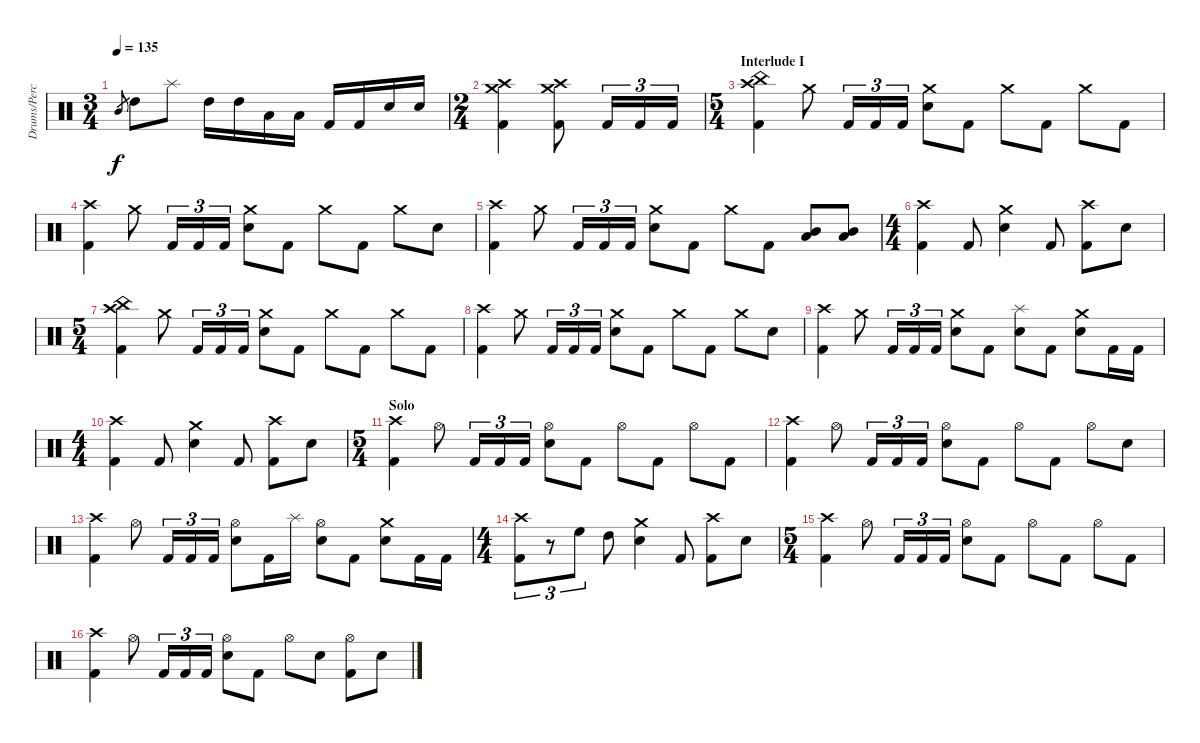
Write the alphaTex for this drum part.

\track ("Drums/Percussion" "Drums/Perc") {instrument percussion}
\staff {score}
\articulation defaults
\ts (3 4)
\tempo 135
\clef neutral
\ks c "Mid Tom (hit)".8{gr dy f} "High Tom (hit)".8 "Splash (hit)".8 "High Tom (hit)".16 "High Tom (hit)".16 "Low Tom (hit)".16 "Low Tom (hit)".16 "Kick (hit) 2".16 "Kick (hit) 2".16 "Snare (hit) 2".16 "Snare (hit) 2".16
|
\ts (2 4)
("Crash medium (hit)" "Crash high (hit)" "Kick (hit) 2").4 ("Crash medium (hit)" "Crash high (hit)" "Kick (hit) 2").8 "Kick (hit) 2".16{tu (3 2)} "Kick (hit) 2".16{tu (3 2)} "Kick (hit) 2".16{tu (3 2)} |
\ts (5 4)
\section ("" "Interlude I")
("Crash high (hit)" "China (hit)" "Kick (hit) 2").4 "Crash medium (hit)".8 "Kick (hit) 2".16{tu (3 2)} "Kick (hit) 2".16{tu (3 2)} "Kick (hit) 2".16{tu (3 2)} ("Crash medium (hit)" "Snare (hit) 2").8 "Kick (hit) 2".8 "Crash medium (hit)".8 "Kick (hit) 2".8 "Crash medium (hit)".8 "Kick (hit) 2".8 |
("Crash high (hit)" "Kick (hit) 2").4 "Crash medium (hit)".8 "Kick (hit) 2".16{tu (3 2)} "Kick (hit) 2".16{tu (3 2)} "Kick (hit) 2".16{tu (3 2)} ("Crash medium (hit)" "Snare (hit) 2").8 "Kick (hit) 2".8 "Crash medium (hit)".8 "Kick (hit) 2".8 "Crash medium (hit)".8 "Snare (hit) 2".8 |
("Crash high (hit)" "Kick (hit) 2").4 "Crash medium (hit)".8 "Kick (hit) 2".16{tu (3 2)} "Kick (hit) 2".16{tu (3 2)} "Kick (hit) 2".16{tu (3 2)} ("Crash medium (hit)" "Snare (hit) 2").8 "Kick (hit) 2".8 "Crash medium (hit)".8 "Kick (hit) 2".8 ("Mid Tom (hit)" "Low Floor Tom (hit)").8 ("Mid Tom (hit)" "Low Floor Tom (hit)").8 |
\ts (4 4)
("Crash high (hit)" "Kick (hit) 2").4 "Kick (hit) 2".8 ("Crash medium (hit)" "Snare (hit) 2").4 "Kick (hit) 2".8 ("Crash high (hit)" "Kick (hit) 2").8 "Snare (hit) 2".8 |
\ts (5 4)
("Crash high (hit)" "China (hit)" "Kick (hit) 2").4 "Crash medium (hit)".8 "Kick (hit) 2".16{tu (3 2)} "Kick (hit) 2".16{tu (3 2)} "Kick (hit) 2".16{tu (3 2)} ("Crash medium (hit)" "Snare (hit) 2").8 "Kick (hit) 2".8 "Crash medium (hit)".8 "Kick (hit) 2".8 "Crash medium (hit)".8 "Kick (hit) 2".8 |
("Crash high (hit)" "Kick (hit) 2").4 "Crash medium (hit)".8 "Kick (hit) 2".16{tu (3 2)} "Kick (hit) 2".16{tu (3 2)} "Kick (hit) 2".16{tu (3 2)} ("Crash medium (hit)" "Snare (hit) 2").8 "Kick (hit) 2".8 "Crash medium (hit)".8 "Kick (hit) 2".8 "Crash medium (hit)".8 "Snare (hit) 2".8 |
("Crash high (hit)" "Kick (hit) 2").4 "Crash medium (hit)".8 "Kick (hit) 2".16{tu (3 2)} "Kick (hit) 2".16{tu (3 2)} "Kick (hit) 2".16{tu (3 2)} ("Crash medium (hit)" "Snare (hit) 2").8 "Kick (hit) 2".8 ("Splash (hit)" "Snare (hit) 2").8 "Kick (hit) 2".8 ("Crash medium (hit)" "Snare (hit) 2").8 "Kick (hit) 2".16 "Kick (hit) 2".16 |
\ts (4 4)
("Crash high (hit)" "Kick (hit) 2").4 "Kick (hit) 2".8 ("Crash medium (hit)" "Snare (hit) 2").4 "Kick (hit) 2".8 ("Crash high (hit)" "Kick (hit) 2").8 "Snare (hit) 2".8 |
\ts (5 4)
\section ("" "Solo")
("Crash high (hit)" "Kick (hit) 2").4 "Hi-Hat (open)".8 "Kick (hit) 2".16{tu (3 2)} "Kick (hit) 2".16{tu (3 2)} "Kick (hit) 2".16{tu (3 2)} ("Hi-Hat (open)" "Snare (hit) 2").8 "Kick (hit) 2".8 "Hi-Hat (open)".8 "Kick (hit) 2".8 "Hi-Hat (open)".8 "Kick (hit) 2".8 |
("Crash high (hit)" "Kick (hit) 2").4 "Hi-Hat (open)".8 "Kick (hit) 2".16{tu (3 2)} "Kick (hit) 2".16{tu (3 2)} "Kick (hit) 2".16{tu (3 2)} ("Hi-Hat (open)" "Snare (hit) 2").8 "Kick (hit) 2".8 "Hi-Hat (open)".8 "Kick (hit) 2".8 "Hi-Hat (open)".8 "Snare (hit) 2".8 |
("Crash high (hit)" "Kick (hit) 2").4 "Hi-Hat (open)".8 "Kick (hit) 2".16{tu (3 2)} "Kick (hit) 2".16{tu (3 2)} "Kick (hit) 2".16{tu (3 2)} ("Hi-Hat (open)" "Snare (hit) 2").8 "Kick (hit) 2".16 "Splash (hit)".16 ("Hi-Hat (open)" "Snare (hit) 2").8 "Kick (hit) 2".8 ("Crash medium (hit)" "Snare (hit) 2").8 "Kick (hit) 2".16 "Kick (hit) 2".16 |
\ts (4 4)
("Crash high (hit)" "Kick (hit) 2").8{tu (3 2)} r.8{tu (3 2)} "High Floor Tom (hit)".8{tu (3 2)} "High Tom (hit)".8 ("Crash medium (hit)" "Snare (hit) 2").4 "Kick (hit) 2".8 ("Crash high (hit)" "Kick (hit) 2").8 "Snare (hit) 2".8 |
\ts (5 4)
("Crash high (hit)" "Kick (hit) 2").4 "Hi-Hat (open)".8 "Kick (hit) 2".16{tu (3 2)} "Kick (hit) 2".16{tu (3 2)} "Kick (hit) 2".16{tu (3 2)} ("Hi-Hat (open)" "Snare (hit) 2").8 "Kick (hit) 2".8 "Hi-Hat (open)".8 "Kick (hit) 2".8 "Hi-Hat (open)".8 "Kick (hit) 2".8 |
("Crash high (hit)" "Kick (hit) 2").4 "Hi-Hat (open)".8 "Kick (hit) 2".16{tu (3 2)} "Kick (hit) 2".16{tu (3 2)} "Kick (hit) 2".16{tu (3 2)} ("Hi-Hat (open)" "Snare (hit) 2").8 "Kick (hit) 2".8 "Hi-Hat (open)".8 "Snare (hit) 2".8 ("Hi-Hat (open)" "Kick (hit) 2").8 "Snare (hit) 2".8
